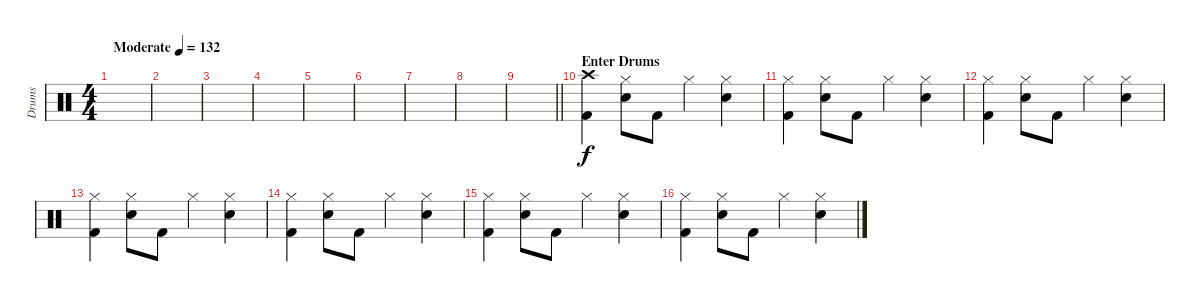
\track ("Drums" "Drums") {instrument percussion}
\staff {score}
\articulation defaults
\ts (4 4)
\tempo (132 "Moderate")
\clef neutral
\ks c
|
|
|
|
|
|
|
|
\barLineRight lightlight
|
\section ("" "Enter Drums")
("Crash high (hit)" "Kick (hit) 2").4 ("Hi-Hat (closed)" "Electric Snare (hit)").8 "Kick (hit) 2".8 "Hi-Hat (closed)".4 ("Hi-Hat (closed)" "Electric Snare (hit)").4 |
("Hi-Hat (closed)" "Kick (hit) 2").4 ("Hi-Hat (closed)" "Electric Snare (hit)").8 "Kick (hit) 2".8 "Hi-Hat (closed)".4 ("Hi-Hat (closed)" "Electric Snare (hit)").4 |
("Hi-Hat (closed)" "Kick (hit) 2").4 ("Hi-Hat (closed)" "Electric Snare (hit)").8 "Kick (hit) 2".8 "Hi-Hat (closed)".4 ("Hi-Hat (closed)" "Electric Snare (hit)").4 |
("Hi-Hat (closed)" "Kick (hit) 2").4 ("Hi-Hat (closed)" "Electric Snare (hit)").8 "Kick (hit) 2".8 "Hi-Hat (closed)".4 ("Hi-Hat (closed)" "Electric Snare (hit)").4 |
("Hi-Hat (closed)" "Kick (hit) 2").4 ("Hi-Hat (closed)" "Electric Snare (hit)").8 "Kick (hit) 2".8 "Hi-Hat (closed)".4 ("Hi-Hat (closed)" "Electric Snare (hit)").4 |
("Hi-Hat (closed)" "Kick (hit) 2").4 ("Hi-Hat (closed)" "Electric Snare (hit)").8 "Kick (hit) 2".8 "Hi-Hat (closed)".4 ("Hi-Hat (closed)" "Electric Snare (hit)").4 |
("Hi-Hat (closed)" "Kick (hit) 2").4 ("Hi-Hat (closed)" "Electric Snare (hit)").8 "Kick (hit) 2".8 "Hi-Hat (closed)".4 ("Hi-Hat (closed)" "Electric Snare (hit)").4
